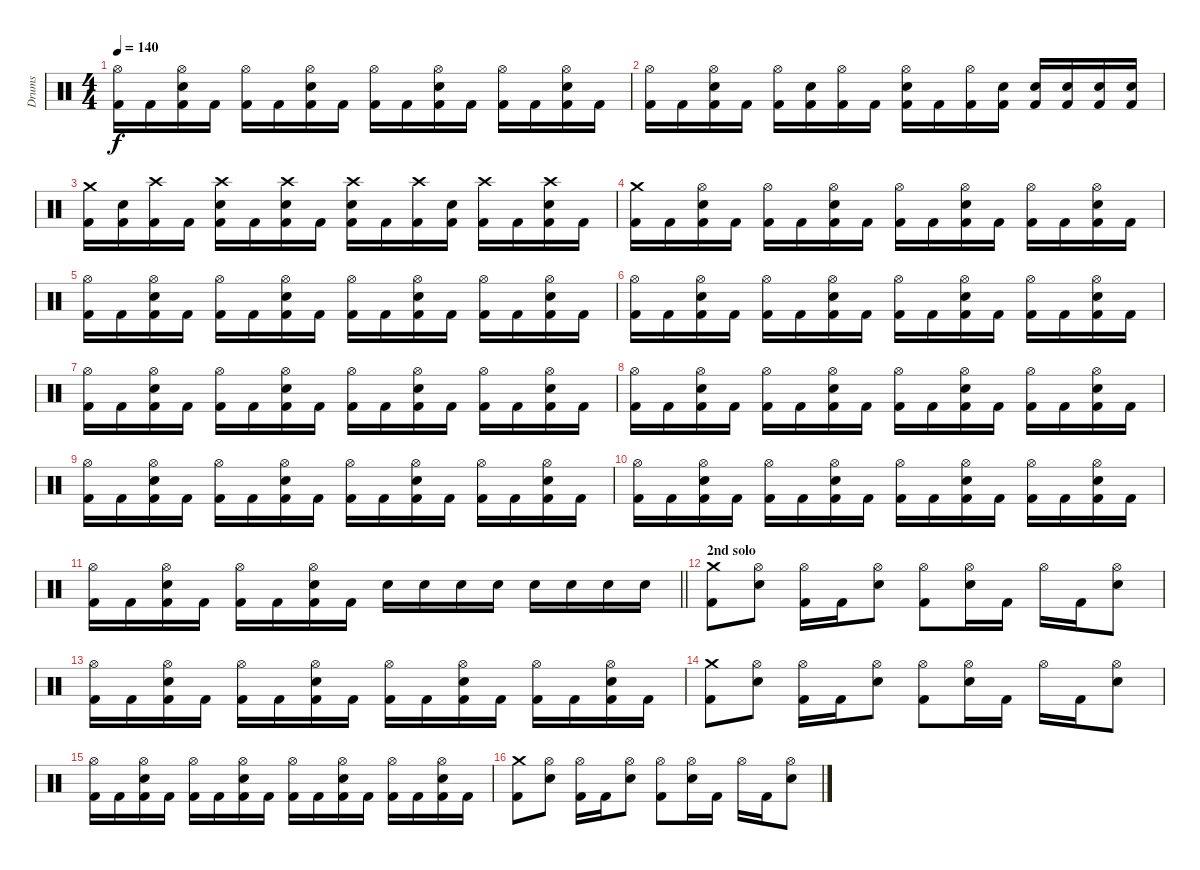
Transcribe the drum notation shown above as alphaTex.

\track ("Drums" "Drums") {instrument percussion}
\staff {score}
\articulation defaults
\ts (4 4)
\tempo 140
\clef neutral
\ks c
("Hi-Hat (open)" "Kick (hit) 2").16{dy f} "Kick (hit) 2".16 ("Electric Snare (hit)" "Hi-Hat (open)" "Kick (hit) 2").16 "Kick (hit) 2".16 ("Hi-Hat (open)" "Kick (hit) 2").16 "Kick (hit) 2".16 ("Kick (hit) 2" "Electric Snare (hit)" "Hi-Hat (open)").16 "Kick (hit) 2".16 ("Hi-Hat (open)" "Kick (hit) 2").16 "Kick (hit) 2".16 ("Electric Snare (hit)" "Hi-Hat (open)" "Kick (hit) 2").16 "Kick (hit) 2".16 ("Hi-Hat (open)" "Kick (hit) 2").16 "Kick (hit) 2".16 ("Kick (hit) 2" "Electric Snare (hit)" "Hi-Hat (open)").16 "Kick (hit) 2".16 |
("Hi-Hat (open)" "Kick (hit) 2").16 "Kick (hit) 2".16 ("Electric Snare (hit)" "Hi-Hat (open)" "Kick (hit) 2").16 "Kick (hit) 2".16 ("Hi-Hat (open)" "Kick (hit) 2").16 ("Kick (hit) 2" "Electric Snare (hit)").16 ("Kick (hit) 2" "Hi-Hat (open)").16 "Kick (hit) 2".16 ("Hi-Hat (open)" "Electric Snare (hit)" "Kick (hit) 2").16 "Kick (hit) 2".16 ("Hi-Hat (open)" "Kick (hit) 2").16 ("Electric Snare (hit)" "Kick (hit) 2").16 ("Electric Snare (hit)" "Kick (hit) 2").16 ("Kick (hit) 2" "Electric Snare (hit)").16 ("Kick (hit) 2" "Electric Snare (hit)").16 ("Kick (hit) 2" "Electric Snare (hit)").16 |
("Crash medium (hit)" "Kick (hit) 2").16 ("Electric Snare (hit)" "Kick (hit) 2").16 ("Crash high (hit)" "Kick (hit) 2").16 "Kick (hit) 2".16 ("Crash high (hit)" "Electric Snare (hit)" "Kick (hit) 2").16 "Kick (hit) 2".16 ("Kick (hit) 2" "Electric Snare (hit)" "Crash high (hit)").16 "Kick (hit) 2".16 ("Crash high (hit)" "Electric Snare (hit)" "Kick (hit) 2").16 "Kick (hit) 2".16 ("Crash high (hit)" "Kick (hit) 2").16 ("Electric Snare (hit)" "Kick (hit) 2").16 ("Kick (hit) 2" "Crash high (hit)").16 "Kick (hit) 2".16 ("Kick (hit) 2" "Crash high (hit)" "Electric Snare (hit)").16 "Kick (hit) 2".16 |
("Crash medium (hit)" "Kick (hit) 2").16 "Kick (hit) 2".16 ("Electric Snare (hit)" "Hi-Hat (open)" "Kick (hit) 2").16 "Kick (hit) 2".16 ("Hi-Hat (open)" "Kick (hit) 2").16 "Kick (hit) 2".16 ("Electric Snare (hit)" "Hi-Hat (open)" "Kick (hit) 2").16 "Kick (hit) 2".16 ("Hi-Hat (open)" "Kick (hit) 2").16 "Kick (hit) 2".16 ("Electric Snare (hit)" "Hi-Hat (open)" "Kick (hit) 2").16 "Kick (hit) 2".16 ("Hi-Hat (open)" "Kick (hit) 2").16 "Kick (hit) 2".16 ("Kick (hit) 2" "Electric Snare (hit)" "Hi-Hat (open)").16 "Kick (hit) 2".16 |
("Hi-Hat (open)" "Kick (hit) 2").16 "Kick (hit) 2".16 ("Electric Snare (hit)" "Hi-Hat (open)" "Kick (hit) 2").16 "Kick (hit) 2".16 ("Hi-Hat (open)" "Kick (hit) 2").16 "Kick (hit) 2".16 ("Kick (hit) 2" "Electric Snare (hit)" "Hi-Hat (open)").16 "Kick (hit) 2".16 ("Hi-Hat (open)" "Kick (hit) 2").16 "Kick (hit) 2".16 ("Electric Snare (hit)" "Hi-Hat (open)" "Kick (hit) 2").16 "Kick (hit) 2".16 ("Hi-Hat (open)" "Kick (hit) 2").16 "Kick (hit) 2".16 ("Kick (hit) 2" "Electric Snare (hit)" "Hi-Hat (open)").16 "Kick (hit) 2".16 |
("Hi-Hat (open)" "Kick (hit) 2").16 "Kick (hit) 2".16 ("Electric Snare (hit)" "Hi-Hat (open)" "Kick (hit) 2").16 "Kick (hit) 2".16 ("Hi-Hat (open)" "Kick (hit) 2").16 "Kick (hit) 2".16 ("Kick (hit) 2" "Electric Snare (hit)" "Hi-Hat (open)").16 "Kick (hit) 2".16 ("Hi-Hat (open)" "Kick (hit) 2").16 "Kick (hit) 2".16 ("Electric Snare (hit)" "Hi-Hat (open)" "Kick (hit) 2").16 "Kick (hit) 2".16 ("Hi-Hat (open)" "Kick (hit) 2").16 "Kick (hit) 2".16 ("Kick (hit) 2" "Electric Snare (hit)" "Hi-Hat (open)").16 "Kick (hit) 2".16 |
("Hi-Hat (open)" "Kick (hit) 2").16 "Kick (hit) 2".16 ("Electric Snare (hit)" "Hi-Hat (open)" "Kick (hit) 2").16 "Kick (hit) 2".16 ("Hi-Hat (open)" "Kick (hit) 2").16 "Kick (hit) 2".16 ("Kick (hit) 2" "Electric Snare (hit)" "Hi-Hat (open)").16 "Kick (hit) 2".16 ("Hi-Hat (open)" "Kick (hit) 2").16 "Kick (hit) 2".16 ("Electric Snare (hit)" "Hi-Hat (open)" "Kick (hit) 2").16 "Kick (hit) 2".16 ("Hi-Hat (open)" "Kick (hit) 2").16 "Kick (hit) 2".16 ("Kick (hit) 2" "Electric Snare (hit)" "Hi-Hat (open)").16 "Kick (hit) 2".16 |
("Hi-Hat (open)" "Kick (hit) 2").16 "Kick (hit) 2".16 ("Electric Snare (hit)" "Hi-Hat (open)" "Kick (hit) 2").16 "Kick (hit) 2".16 ("Hi-Hat (open)" "Kick (hit) 2").16 "Kick (hit) 2".16 ("Kick (hit) 2" "Electric Snare (hit)" "Hi-Hat (open)").16 "Kick (hit) 2".16 ("Hi-Hat (open)" "Kick (hit) 2").16 "Kick (hit) 2".16 ("Electric Snare (hit)" "Hi-Hat (open)" "Kick (hit) 2").16 "Kick (hit) 2".16 ("Hi-Hat (open)" "Kick (hit) 2").16 "Kick (hit) 2".16 ("Kick (hit) 2" "Electric Snare (hit)" "Hi-Hat (open)").16 "Kick (hit) 2".16 |
("Hi-Hat (open)" "Kick (hit) 2").16 "Kick (hit) 2".16 ("Electric Snare (hit)" "Hi-Hat (open)" "Kick (hit) 2").16 "Kick (hit) 2".16 ("Hi-Hat (open)" "Kick (hit) 2").16 "Kick (hit) 2".16 ("Kick (hit) 2" "Electric Snare (hit)" "Hi-Hat (open)").16 "Kick (hit) 2".16 ("Hi-Hat (open)" "Kick (hit) 2").16 "Kick (hit) 2".16 ("Electric Snare (hit)" "Hi-Hat (open)" "Kick (hit) 2").16 "Kick (hit) 2".16 ("Hi-Hat (open)" "Kick (hit) 2").16 "Kick (hit) 2".16 ("Kick (hit) 2" "Electric Snare (hit)" "Hi-Hat (open)").16 "Kick (hit) 2".16 |
("Hi-Hat (open)" "Kick (hit) 2").16 "Kick (hit) 2".16 ("Electric Snare (hit)" "Hi-Hat (open)" "Kick (hit) 2").16 "Kick (hit) 2".16 ("Hi-Hat (open)" "Kick (hit) 2").16 "Kick (hit) 2".16 ("Kick (hit) 2" "Electric Snare (hit)" "Hi-Hat (open)").16 "Kick (hit) 2".16 ("Hi-Hat (open)" "Kick (hit) 2").16 "Kick (hit) 2".16 ("Electric Snare (hit)" "Hi-Hat (open)" "Kick (hit) 2").16 "Kick (hit) 2".16 ("Hi-Hat (open)" "Kick (hit) 2").16 "Kick (hit) 2".16 ("Kick (hit) 2" "Electric Snare (hit)" "Hi-Hat (open)").16 "Kick (hit) 2".16 |
\barLineRight lightlight
("Hi-Hat (open)" "Kick (hit) 2").16 "Kick (hit) 2".16 ("Electric Snare (hit)" "Hi-Hat (open)" "Kick (hit) 2").16 "Kick (hit) 2".16 ("Hi-Hat (open)" "Kick (hit) 2").16 "Kick (hit) 2".16 ("Kick (hit) 2" "Electric Snare (hit)" "Hi-Hat (open)").16 "Kick (hit) 2".16 "Electric Snare (hit)".16 "Electric Snare (hit)".16 "Electric Snare (hit)".16 "Electric Snare (hit)".16 "Electric Snare (hit)".16 "Electric Snare (hit)".16 "Electric Snare (hit)".16 "Electric Snare (hit)".16 |
\section ("" "2nd solo")
("Crash medium (hit)" "Kick (hit) 2").8 ("Electric Snare (hit)" "Hi-Hat (open)").8 ("Hi-Hat (open)" "Kick (hit) 2").16 "Kick (hit) 2".16 ("Hi-Hat (open)" "Electric Snare (hit)").8 ("Kick (hit) 2" "Hi-Hat (open)").8 ("Electric Snare (hit)" "Hi-Hat (open)").16 "Kick (hit) 2".16 "Hi-Hat (open)".16 "Kick (hit) 2".16 ("Electric Snare (hit)" "Hi-Hat (open)").8 |
("Hi-Hat (open)" "Kick (hit) 2").16 "Kick (hit) 2".16 ("Electric Snare (hit)" "Hi-Hat (open)" "Kick (hit) 2").16 "Kick (hit) 2".16 ("Hi-Hat (open)" "Kick (hit) 2").16 "Kick (hit) 2".16 ("Kick (hit) 2" "Electric Snare (hit)" "Hi-Hat (open)").16 "Kick (hit) 2".16 ("Hi-Hat (open)" "Kick (hit) 2").16 "Kick (hit) 2".16 ("Electric Snare (hit)" "Hi-Hat (open)" "Kick (hit) 2").16 "Kick (hit) 2".16 ("Hi-Hat (open)" "Kick (hit) 2").16 "Kick (hit) 2".16 ("Kick (hit) 2" "Electric Snare (hit)" "Hi-Hat (open)").16 "Kick (hit) 2".16 |
("Crash medium (hit)" "Kick (hit) 2").8 ("Electric Snare (hit)" "Hi-Hat (open)").8 ("Hi-Hat (open)" "Kick (hit) 2").16 "Kick (hit) 2".16 ("Hi-Hat (open)" "Electric Snare (hit)").8 ("Kick (hit) 2" "Hi-Hat (open)").8 ("Electric Snare (hit)" "Hi-Hat (open)").16 "Kick (hit) 2".16 "Hi-Hat (open)".16 "Kick (hit) 2".16 ("Electric Snare (hit)" "Hi-Hat (open)").8 |
("Hi-Hat (open)" "Kick (hit) 2").16 "Kick (hit) 2".16 ("Electric Snare (hit)" "Hi-Hat (open)" "Kick (hit) 2").16 "Kick (hit) 2".16 ("Hi-Hat (open)" "Kick (hit) 2").16 "Kick (hit) 2".16 ("Kick (hit) 2" "Electric Snare (hit)" "Hi-Hat (open)").16 "Kick (hit) 2".16 ("Hi-Hat (open)" "Kick (hit) 2").16 "Kick (hit) 2".16 ("Electric Snare (hit)" "Hi-Hat (open)" "Kick (hit) 2").16 "Kick (hit) 2".16 ("Hi-Hat (open)" "Kick (hit) 2").16 "Kick (hit) 2".16 ("Kick (hit) 2" "Electric Snare (hit)" "Hi-Hat (open)").16 "Kick (hit) 2".16 |
("Crash medium (hit)" "Kick (hit) 2").8 ("Electric Snare (hit)" "Hi-Hat (open)").8 ("Hi-Hat (open)" "Kick (hit) 2").16 "Kick (hit) 2".16 ("Hi-Hat (open)" "Electric Snare (hit)").8 ("Kick (hit) 2" "Hi-Hat (open)").8 ("Electric Snare (hit)" "Hi-Hat (open)").16 "Kick (hit) 2".16 "Hi-Hat (open)".16 "Kick (hit) 2".16 ("Electric Snare (hit)" "Hi-Hat (open)").8
